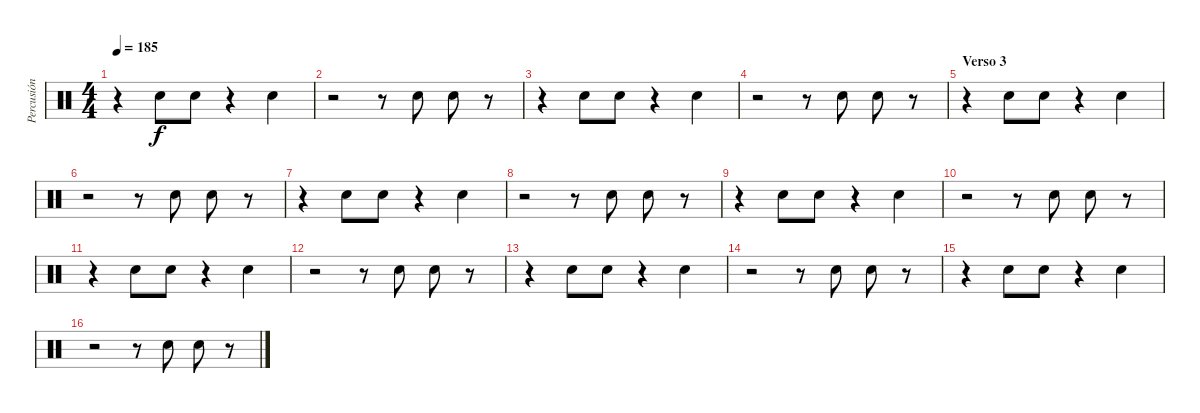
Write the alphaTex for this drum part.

\track ("Percusión" "Percusión") {instrument percussion}
\staff {score}
\articulation defaults
\ts (4 4)
\tempo 185
\clef neutral
\ks c
r.4{dy f} "Hand Clap (hit)".8 "Hand Clap (hit)".8 r.4 "Hand Clap (hit)".4 |
r.2 r.8 "Hand Clap (hit)".8 "Hand Clap (hit)".8 r.8 |
r.4 "Hand Clap (hit)".8 "Hand Clap (hit)".8 r.4 "Hand Clap (hit)".4 |
r.2 r.8 "Hand Clap (hit)".8 "Hand Clap (hit)".8 r.8 |
\section ("" "Verso 3")
r.4 "Hand Clap (hit)".8 "Hand Clap (hit)".8 r.4 "Hand Clap (hit)".4 |
r.2 r.8 "Hand Clap (hit)".8 "Hand Clap (hit)".8 r.8 |
r.4 "Hand Clap (hit)".8 "Hand Clap (hit)".8 r.4 "Hand Clap (hit)".4 |
r.2 r.8 "Hand Clap (hit)".8 "Hand Clap (hit)".8 r.8 |
r.4 "Hand Clap (hit)".8 "Hand Clap (hit)".8 r.4 "Hand Clap (hit)".4 |
r.2 r.8 "Hand Clap (hit)".8 "Hand Clap (hit)".8 r.8 |
r.4 "Hand Clap (hit)".8 "Hand Clap (hit)".8 r.4 "Hand Clap (hit)".4 |
r.2 r.8 "Hand Clap (hit)".8 "Hand Clap (hit)".8 r.8 |
r.4 "Hand Clap (hit)".8 "Hand Clap (hit)".8 r.4 "Hand Clap (hit)".4 |
r.2 r.8 "Hand Clap (hit)".8 "Hand Clap (hit)".8 r.8 |
r.4 "Hand Clap (hit)".8 "Hand Clap (hit)".8 r.4 "Hand Clap (hit)".4 |
r.2 r.8 "Hand Clap (hit)".8 "Hand Clap (hit)".8 r.8
